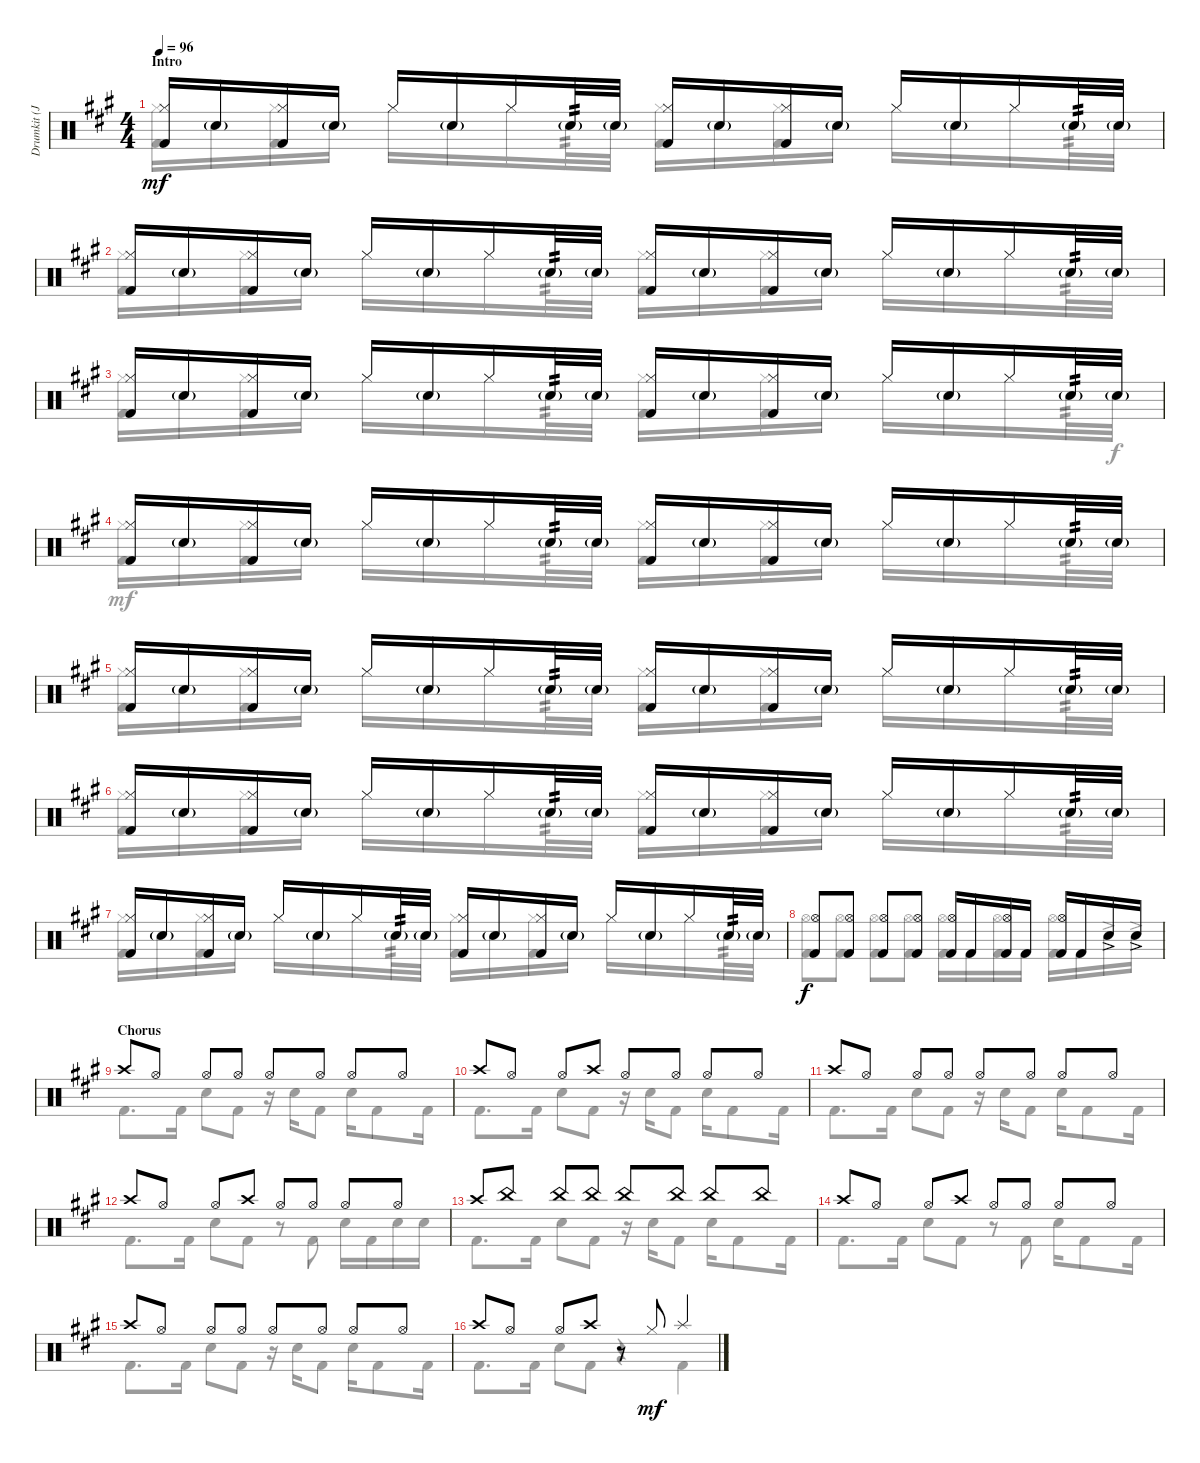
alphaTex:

\track ("Drumkit (John Otto)" "Drumkit (J") {instrument percussion}
\staff {score}
\articulation defaults
\voice
\ts (4 4)
\section ("" "Intro")
\tempo 96
\clef neutral
\ks a
("Kick (hit) 2" "Hi-Hat (closed)").16{dy mf} "Snare (hit) 2"{g}.16 ("Kick (hit) 2" "Hi-Hat (closed)").16 "Snare (hit) 2"{g}.16 "Hi-Hat (closed)".16 "Snare (hit) 2"{g}.16 "Hi-Hat (closed)".16 "Snare (hit) 2"{g}.32{tp 2} "Snare (hit) 2"{g}.32 ("Kick (hit) 2" "Hi-Hat (closed)").16 "Snare (hit) 2"{g}.16 ("Kick (hit) 2" "Hi-Hat (closed)").16 "Snare (hit) 2"{g}.16 "Hi-Hat (closed)".16 "Snare (hit) 2"{g}.16 "Hi-Hat (closed)".16 "Snare (hit) 2"{g}.32{tp 2} "Snare (hit) 2"{g}.32 |
("Kick (hit) 2" "Hi-Hat (closed)").16 "Snare (hit) 2"{g}.16 ("Kick (hit) 2" "Hi-Hat (closed)").16 "Snare (hit) 2"{g}.16 "Hi-Hat (closed)".16 "Snare (hit) 2"{g}.16 "Hi-Hat (closed)".16 "Snare (hit) 2"{g}.32{tp 2} "Snare (hit) 2"{g}.32 ("Kick (hit) 2" "Hi-Hat (closed)").16 "Snare (hit) 2"{g}.16 ("Kick (hit) 2" "Hi-Hat (closed)").16 "Snare (hit) 2"{g}.16 "Hi-Hat (closed)".16 "Snare (hit) 2"{g}.16 "Hi-Hat (closed)".16 "Snare (hit) 2"{g}.32{tp 2} "Snare (hit) 2"{g}.32 |
("Kick (hit) 2" "Hi-Hat (closed)").16 "Snare (hit) 2"{g}.16 ("Kick (hit) 2" "Hi-Hat (closed)").16 "Snare (hit) 2"{g}.16 "Hi-Hat (closed)".16 "Snare (hit) 2"{g}.16 "Hi-Hat (closed)".16 "Snare (hit) 2"{g}.32{tp 2} "Snare (hit) 2"{g}.32 ("Kick (hit) 2" "Hi-Hat (closed)").16 "Snare (hit) 2"{g}.16 ("Kick (hit) 2" "Hi-Hat (closed)").16 "Snare (hit) 2"{g}.16 "Hi-Hat (closed)".16 "Snare (hit) 2"{g}.16 "Hi-Hat (closed)".16 "Snare (hit) 2"{g}.32{tp 2} "Snare (hit) 2"{g}.32 |
("Kick (hit) 2" "Hi-Hat (closed)").16 "Snare (hit) 2"{g}.16 ("Kick (hit) 2" "Hi-Hat (closed)").16 "Snare (hit) 2"{g}.16 "Hi-Hat (closed)".16 "Snare (hit) 2"{g}.16 "Hi-Hat (closed)".16 "Snare (hit) 2"{g}.32{tp 2} "Snare (hit) 2"{g}.32 ("Kick (hit) 2" "Hi-Hat (closed)").16 "Snare (hit) 2"{g}.16 ("Kick (hit) 2" "Hi-Hat (closed)").16 "Snare (hit) 2"{g}.16 "Hi-Hat (closed)".16 "Snare (hit) 2"{g}.16 "Hi-Hat (closed)".16 "Snare (hit) 2"{g}.32{tp 2} "Snare (hit) 2"{g}.32 |
("Kick (hit) 2" "Hi-Hat (closed)").16 "Snare (hit) 2"{g}.16 ("Kick (hit) 2" "Hi-Hat (closed)").16 "Snare (hit) 2"{g}.16 "Hi-Hat (closed)".16 "Snare (hit) 2"{g}.16 "Hi-Hat (closed)".16 "Snare (hit) 2"{g}.32{tp 2} "Snare (hit) 2"{g}.32 ("Kick (hit) 2" "Hi-Hat (closed)").16 "Snare (hit) 2"{g}.16 ("Kick (hit) 2" "Hi-Hat (closed)").16 "Snare (hit) 2"{g}.16 "Hi-Hat (closed)".16 "Snare (hit) 2"{g}.16 "Hi-Hat (closed)".16 "Snare (hit) 2"{g}.32{tp 2} "Snare (hit) 2"{g}.32 |
("Kick (hit) 2" "Hi-Hat (closed)").16 "Snare (hit) 2"{g}.16 ("Kick (hit) 2" "Hi-Hat (closed)").16 "Snare (hit) 2"{g}.16 "Hi-Hat (closed)".16 "Snare (hit) 2"{g}.16 "Hi-Hat (closed)".16 "Snare (hit) 2"{g}.32{tp 2} "Snare (hit) 2"{g}.32 ("Kick (hit) 2" "Hi-Hat (closed)").16 "Snare (hit) 2"{g}.16 ("Kick (hit) 2" "Hi-Hat (closed)").16 "Snare (hit) 2"{g}.16 "Hi-Hat (closed)".16 "Snare (hit) 2"{g}.16 "Hi-Hat (closed)".16 "Snare (hit) 2"{g}.32{tp 2} "Snare (hit) 2"{g}.32 |
("Kick (hit) 2" "Hi-Hat (closed)").16 "Snare (hit) 2"{g}.16 ("Kick (hit) 2" "Hi-Hat (closed)").16 "Snare (hit) 2"{g}.16 "Hi-Hat (closed)".16 "Snare (hit) 2"{g}.16 "Hi-Hat (closed)".16 "Snare (hit) 2"{g}.32{tp 2} "Snare (hit) 2"{g}.32 ("Kick (hit) 2" "Hi-Hat (closed)").16 "Snare (hit) 2"{g}.16 ("Kick (hit) 2" "Hi-Hat (closed)").16 "Snare (hit) 2"{g}.16 "Hi-Hat (closed)".16 "Snare (hit) 2"{g}.16 "Hi-Hat (closed)".16 "Snare (hit) 2"{g}.32{tp 2} "Snare (hit) 2"{g}.32 |
("Hi-Hat (open)" "Kick (hit) 2").8{dy f} ("Hi-Hat (open)" "Kick (hit) 2").8 ("Hi-Hat (open)" "Kick (hit) 2").8 ("Hi-Hat (open)" "Kick (hit) 2").8 ("Hi-Hat (open)" "Kick (hit) 2").16 "Kick (hit) 2".16 ("Hi-Hat (open)" "Kick (hit) 2").16 "Kick (hit) 2".16 ("Hi-Hat (open)" "Kick (hit) 2").16 "Kick (hit) 2".16 "Snare (hit) 2"{ac}.16 "Snare (hit) 2"{ac}.16 |
\section ("" "Chorus")
"Crash high (hit)".8 "Hi-Hat (open)".8 "Hi-Hat (open)".8 "Hi-Hat (open)".8 "Hi-Hat (open)".8 "Hi-Hat (open)".8 "Hi-Hat (open)".8 "Hi-Hat (open)".8 |
"Crash high (hit)".8 "Hi-Hat (open)".8 "Hi-Hat (open)".8 "Crash high (hit)".8 "Hi-Hat (open)".8 "Hi-Hat (open)".8 "Hi-Hat (open)".8 "Hi-Hat (open)".8 |
"Crash high (hit)".8 "Hi-Hat (open)".8 "Hi-Hat (open)".8 "Hi-Hat (open)".8 "Hi-Hat (open)".8 "Hi-Hat (open)".8 "Hi-Hat (open)".8 "Hi-Hat (open)".8 |
"Crash high (hit)".8 "Hi-Hat (open)".8 "Hi-Hat (open)".8 "Crash high (hit)".8 "Hi-Hat (open)".8 "Hi-Hat (open)".8 "Hi-Hat (open)".8 "Hi-Hat (open)".8 |
"Crash high (hit)".8 "China (hit)".8 "China (hit)".8 "China (hit)".8 "China (hit)".8 "China (hit)".8 "China (hit)".8 "China (hit)".8 |
"Crash high (hit)".8 "Hi-Hat (open)".8 "Hi-Hat (open)".8 "Crash high (hit)".8 "Hi-Hat (open)".8 "Hi-Hat (open)".8 "Hi-Hat (open)".8 "Hi-Hat (open)".8 |
"Crash high (hit)".8 "Hi-Hat (open)".8 "Hi-Hat (open)".8 "Hi-Hat (open)".8 "Hi-Hat (open)".8 "Hi-Hat (open)".8 "Hi-Hat (open)".8 "Hi-Hat (open)".8 |
"Crash high (hit)".8 "Hi-Hat (open)".8 "Hi-Hat (open)".8 "Crash high (hit)".8 r.8 "Hi-Hat (closed)".8{dy mf} "Splash (hit)".4
\voice
\clef neutral
\ottava regular
\simile none
\ks a
("Kick (hit) 2" "Hi-Hat (closed)").16{dy mf} "Snare (hit) 2"{g}.16 ("Kick (hit) 2" "Hi-Hat (closed)").16 "Snare (hit) 2"{g}.16 "Hi-Hat (closed)".16 "Snare (hit) 2"{g}.16 "Hi-Hat (closed)".16 "Snare (hit) 2"{g}.32{tp 2} "Snare (hit) 2"{g}.32 ("Kick (hit) 2" "Hi-Hat (closed)").16 "Snare (hit) 2"{g}.16 ("Kick (hit) 2" "Hi-Hat (closed)").16 "Snare (hit) 2"{g}.16 "Hi-Hat (closed)".16 "Snare (hit) 2"{g}.16 "Hi-Hat (closed)".16 "Snare (hit) 2"{g}.32{tp 2} "Snare (hit) 2"{g}.32 |
("Kick (hit) 2" "Hi-Hat (closed)").16 "Snare (hit) 2"{g}.16 ("Kick (hit) 2" "Hi-Hat (closed)").16 "Snare (hit) 2"{g}.16 "Hi-Hat (closed)".16 "Snare (hit) 2"{g}.16 "Hi-Hat (closed)".16 "Snare (hit) 2"{g}.32{tp 2} "Snare (hit) 2"{g}.32 ("Kick (hit) 2" "Hi-Hat (closed)").16 "Snare (hit) 2"{g}.16 ("Kick (hit) 2" "Hi-Hat (closed)").16 "Snare (hit) 2"{g}.16 "Hi-Hat (closed)".16 "Snare (hit) 2"{g}.16 "Hi-Hat (closed)".16 "Snare (hit) 2"{g}.32{tp 2} "Snare (hit) 2"{g}.32 |
("Kick (hit) 2" "Hi-Hat (closed)").16 "Snare (hit) 2"{g}.16 ("Kick (hit) 2" "Hi-Hat (closed)").16 "Snare (hit) 2"{g}.16 "Hi-Hat (closed)".16 "Snare (hit) 2"{g}.16 "Hi-Hat (closed)".16 "Snare (hit) 2"{g}.32{tp 2} "Snare (hit) 2"{g}.32 ("Kick (hit) 2" "Hi-Hat (closed)").16 "Snare (hit) 2"{g}.16 ("Kick (hit) 2" "Hi-Hat (closed)").16 "Snare (hit) 2"{g}.16 "Hi-Hat (closed)".16 "Snare (hit) 2"{g}.16 "Hi-Hat (closed)".16 "Snare (hit) 2"{g}.32{tp 2} "Snare (hit) 2"{g}.32{dy f} |
("Kick (hit) 2" "Hi-Hat (closed)").16{dy mf} "Snare (hit) 2"{g}.16 ("Kick (hit) 2" "Hi-Hat (closed)").16 "Snare (hit) 2"{g}.16 "Hi-Hat (closed)".16 "Snare (hit) 2"{g}.16 "Hi-Hat (closed)".16 "Snare (hit) 2"{g}.32{tp 2} "Snare (hit) 2"{g}.32 ("Kick (hit) 2" "Hi-Hat (closed)").16 "Snare (hit) 2"{g}.16 ("Kick (hit) 2" "Hi-Hat (closed)").16 "Snare (hit) 2"{g}.16 "Hi-Hat (closed)".16 "Snare (hit) 2"{g}.16 "Hi-Hat (closed)".16 "Snare (hit) 2"{g}.32{tp 2} "Snare (hit) 2"{g}.32 |
("Kick (hit) 2" "Hi-Hat (closed)").16 "Snare (hit) 2"{g}.16 ("Kick (hit) 2" "Hi-Hat (closed)").16 "Snare (hit) 2"{g}.16 "Hi-Hat (closed)".16 "Snare (hit) 2"{g}.16 "Hi-Hat (closed)".16 "Snare (hit) 2"{g}.32{tp 2} "Snare (hit) 2"{g}.32 ("Kick (hit) 2" "Hi-Hat (closed)").16 "Snare (hit) 2"{g}.16 ("Kick (hit) 2" "Hi-Hat (closed)").16 "Snare (hit) 2"{g}.16 "Hi-Hat (closed)".16 "Snare (hit) 2"{g}.16 "Hi-Hat (closed)".16 "Snare (hit) 2"{g}.32{tp 2} "Snare (hit) 2"{g}.32 |
("Kick (hit) 2" "Hi-Hat (closed)").16 "Snare (hit) 2"{g}.16 ("Kick (hit) 2" "Hi-Hat (closed)").16 "Snare (hit) 2"{g}.16 "Hi-Hat (closed)".16 "Snare (hit) 2"{g}.16 "Hi-Hat (closed)".16 "Snare (hit) 2"{g}.32{tp 2} "Snare (hit) 2"{g}.32 ("Kick (hit) 2" "Hi-Hat (closed)").16 "Snare (hit) 2"{g}.16 ("Kick (hit) 2" "Hi-Hat (closed)").16 "Snare (hit) 2"{g}.16 "Hi-Hat (closed)".16 "Snare (hit) 2"{g}.16 "Hi-Hat (closed)".16 "Snare (hit) 2"{g}.32{tp 2} "Snare (hit) 2"{g}.32 |
("Kick (hit) 2" "Hi-Hat (closed)").16 "Snare (hit) 2"{g}.16 ("Kick (hit) 2" "Hi-Hat (closed)").16 "Snare (hit) 2"{g}.16 "Hi-Hat (closed)".16 "Snare (hit) 2"{g}.16 "Hi-Hat (closed)".16 "Snare (hit) 2"{g}.32{tp 2} "Snare (hit) 2"{g}.32 ("Kick (hit) 2" "Hi-Hat (closed)").16 "Snare (hit) 2"{g}.16 ("Kick (hit) 2" "Hi-Hat (closed)").16 "Snare (hit) 2"{g}.16 "Hi-Hat (closed)".16 "Snare (hit) 2"{g}.16 "Hi-Hat (closed)".16 "Snare (hit) 2"{g}.32{tp 2} "Snare (hit) 2"{g}.32 |
("Hi-Hat (open)" "Kick (hit) 2").8{dy f} ("Hi-Hat (open)" "Kick (hit) 2").8 ("Hi-Hat (open)" "Kick (hit) 2").8 ("Hi-Hat (open)" "Kick (hit) 2").8 ("Hi-Hat (open)" "Kick (hit) 2").16 "Kick (hit) 2".16 ("Hi-Hat (open)" "Kick (hit) 2").16 "Kick (hit) 2".16 ("Hi-Hat (open)" "Kick (hit) 2").16 "Kick (hit) 2".16 "Snare (hit) 2"{ac}.16 "Snare (hit) 2"{ac}.16 |
"Kick (hit) 2".8{d} "Kick (hit) 2".16 "Snare (hit) 2".8 "Kick (hit) 2".8 r.16 "Snare (hit) 2".16 "Kick (hit) 2".8 "Snare (hit) 2".16 "Kick (hit) 2".8 "Kick (hit) 2".16 |
"Kick (hit) 2".8{d} "Kick (hit) 2".16 "Snare (hit) 2".8 "Kick (hit) 2".8 r.16 "Snare (hit) 2".16 "Kick (hit) 2".8 "Snare (hit) 2".16 "Kick (hit) 2".8 "Kick (hit) 2".16 |
"Kick (hit) 2".8{d} "Kick (hit) 2".16 "Snare (hit) 2".8 "Kick (hit) 2".8 r.16 "Snare (hit) 2".16 "Kick (hit) 2".8 "Snare (hit) 2".16 "Kick (hit) 2".8 "Kick (hit) 2".16 |
"Kick (hit) 2".8{d} "Kick (hit) 2".16 "Snare (hit) 2".8 "Kick (hit) 2".8 r.8 "Kick (hit) 2".8 "Snare (hit) 2".16 "Kick (hit) 2".16 "Snare (hit) 2".16 "Snare (hit) 2".16 |
"Kick (hit) 2".8{d} "Kick (hit) 2".16 "Snare (hit) 2".8 "Kick (hit) 2".8 r.16 "Snare (hit) 2".16 "Kick (hit) 2".8 "Snare (hit) 2".16 "Kick (hit) 2".8 "Kick (hit) 2".16 |
"Kick (hit) 2".8{d} "Kick (hit) 2".16 "Snare (hit) 2".8 "Kick (hit) 2".8 r.8 "Kick (hit) 2".8 "Snare (hit) 2".16 "Kick (hit) 2".8 "Kick (hit) 2".16 |
"Kick (hit) 2".8{d} "Kick (hit) 2".16 "Snare (hit) 2".8 "Kick (hit) 2".8 r.16 "Snare (hit) 2".16 "Kick (hit) 2".8 "Snare (hit) 2".16 "Kick (hit) 2".8 "Kick (hit) 2".16 |
"Kick (hit) 2".8{d} "Kick (hit) 2".16 "Snare (hit) 2".8 "Kick (hit) 2".8 r.4 "Kick (hit) 2".4
